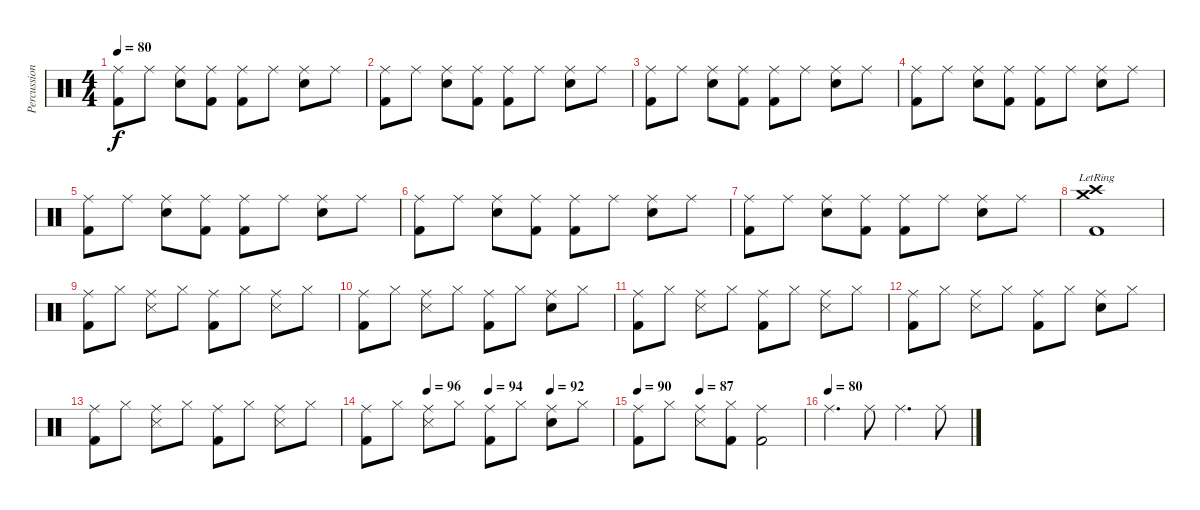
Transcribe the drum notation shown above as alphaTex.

\track ("Percussion" "Percussion") {instrument percussion}
\staff {score}
\articulation defaults
\ts (4 4)
\tempo 80
\clef neutral
\ks c
("Ride (middle)" "Kick (hit) 2").8{dy f} "Ride (middle)".8 ("Ride (middle)" "Snare (hit) 2").8 ("Ride (middle)" "Kick (hit) 2").8 ("Ride (middle)" "Kick (hit) 2").8 "Ride (middle)".8 ("Ride (middle)" "Snare (hit) 2").8 "Ride (middle)".8 |
("Ride (middle)" "Kick (hit) 2").8 "Ride (middle)".8 ("Ride (middle)" "Snare (hit) 2").8 ("Ride (middle)" "Kick (hit) 2").8 ("Ride (middle)" "Kick (hit) 2").8 "Ride (middle)".8 ("Ride (middle)" "Snare (hit) 2").8 "Ride (middle)".8 |
("Ride (middle)" "Kick (hit) 2").8 "Ride (middle)".8 ("Ride (middle)" "Snare (hit) 2").8 ("Ride (middle)" "Kick (hit) 2").8 ("Ride (middle)" "Kick (hit) 2").8 "Ride (middle)".8 ("Ride (middle)" "Snare (hit) 2").8 "Ride (middle)".8 |
("Ride (middle)" "Kick (hit) 2").8 "Ride (middle)".8 ("Ride (middle)" "Snare (hit) 2").8 ("Ride (middle)" "Kick (hit) 2").8 ("Ride (middle)" "Kick (hit) 2").8 "Ride (middle)".8 ("Ride (middle)" "Snare (hit) 2").8 "Ride (middle)".8 |
("Ride (middle)" "Kick (hit) 2").8 "Ride (middle)".8 ("Ride (middle)" "Snare (hit) 2").8 ("Ride (middle)" "Kick (hit) 2").8 ("Ride (middle)" "Kick (hit) 2").8 "Ride (middle)".8 ("Ride (middle)" "Snare (hit) 2").8 "Ride (middle)".8 |
("Ride (middle)" "Kick (hit) 2").8 "Ride (middle)".8 ("Ride (middle)" "Snare (hit) 2").8 ("Ride (middle)" "Kick (hit) 2").8 ("Ride (middle)" "Kick (hit) 2").8 "Ride (middle)".8 ("Ride (middle)" "Snare (hit) 2").8 "Ride (middle)".8 |
("Ride (middle)" "Kick (hit) 2").8 "Ride (middle)".8 ("Ride (middle)" "Snare (hit) 2").8 ("Ride (middle)" "Kick (hit) 2").8 ("Ride (middle)" "Kick (hit) 2").8 "Ride (middle)".8 ("Ride (middle)" "Snare (hit) 2").8 "Ride (middle)".8 |
("Crash medium (hit)"{lr} "Crash high (hit)"{lr} "Kick (hit) 2").1 |
("Ride (middle)" "Kick (hit) 2").8 "Hi-Hat (closed)".8 ("Ride (middle)" "Snare (side stick) 3").8 "Hi-Hat (closed)".8 ("Ride (middle)" "Kick (hit) 2").8 "Hi-Hat (closed)".8 ("Ride (middle)" "Snare (side stick) 3").8 "Hi-Hat (closed)".8 |
("Ride (middle)" "Kick (hit) 2").8 "Hi-Hat (closed)".8 ("Ride (middle)" "Snare (side stick) 3").8 "Hi-Hat (closed)".8 ("Ride (middle)" "Kick (hit) 2").8 "Hi-Hat (closed)".8 ("Ride (middle)" "Snare (hit) 2").8 "Hi-Hat (closed)".8 |
("Ride (middle)" "Kick (hit) 2").8 "Hi-Hat (closed)".8 ("Ride (middle)" "Snare (side stick) 3").8 "Hi-Hat (closed)".8 ("Ride (middle)" "Kick (hit) 2").8 "Hi-Hat (closed)".8 ("Ride (middle)" "Snare (side stick) 3").8 "Hi-Hat (closed)".8 |
("Ride (middle)" "Kick (hit) 2").8 "Hi-Hat (closed)".8 ("Ride (middle)" "Snare (side stick) 3").8 "Hi-Hat (closed)".8 ("Ride (middle)" "Kick (hit) 2").8 "Hi-Hat (closed)".8 ("Ride (middle)" "Snare (hit) 2").8 "Hi-Hat (closed)".8 |
("Ride (middle)" "Kick (hit) 2").8 "Hi-Hat (closed)".8 ("Ride (middle)" "Snare (side stick) 3").8 "Hi-Hat (closed)".8 ("Ride (middle)" "Kick (hit) 2").8 "Hi-Hat (closed)".8 ("Ride (middle)" "Snare (side stick) 3").8 "Hi-Hat (closed)".8 |
\tempo (96 0.25)
\tempo (94 0.5)
\tempo (92 0.75)
("Ride (middle)" "Kick (hit) 2").8 "Hi-Hat (closed)".8 ("Ride (middle)" "Snare (side stick) 3").8 "Hi-Hat (closed)".8 ("Ride (middle)" "Kick (hit) 2").8 "Hi-Hat (closed)".8 ("Ride (middle)" "Snare (hit) 2").8 "Hi-Hat (closed)".8 |
\tempo 90
\tempo (87 0.375)
("Ride (middle)" "Kick (hit) 2").8 "Hi-Hat (closed)".8 ("Ride (middle)" "Snare (side stick) 3").8 ("Hi-Hat (closed)" "Kick (hit) 2").8 ("Ride (middle)" "Kick (hit) 2").2 |
\tempo (80)
"Ride (middle)".4{d} "Ride (middle)".8 "Ride (middle)".4{d} "Ride (middle)".8
